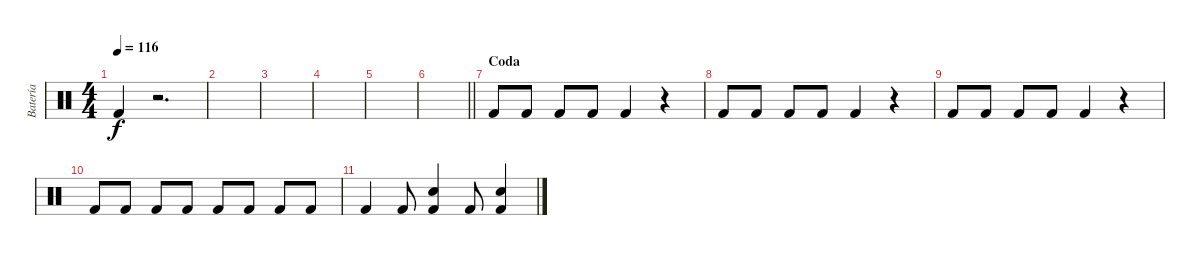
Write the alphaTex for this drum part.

\track ("Batería" "Batería") {instrument percussion}
\staff {score}
\articulation defaults
\ts (4 4)
\tempo 116
\clef neutral
\ks c "Kick (hit) 2".4{dy f}
r.2{d} |
|
|
|
|
\barLineRight lightlight
|
\section ("" "Coda")
"Kick (hit) 2".8 "Kick (hit) 2".8 "Kick (hit) 2".8 "Kick (hit) 2".8 "Kick (hit) 2".4 r.4 |
"Kick (hit) 2".8 "Kick (hit) 2".8 "Kick (hit) 2".8 "Kick (hit) 2".8 "Kick (hit) 2".4 r.4 |
"Kick (hit) 2".8 "Kick (hit) 2".8 "Kick (hit) 2".8 "Kick (hit) 2".8 "Kick (hit) 2".4 r.4 |
"Kick (hit) 2".8 "Kick (hit) 2".8 "Kick (hit) 2".8 "Kick (hit) 2".8 "Kick (hit) 2".8 "Kick (hit) 2".8 "Kick (hit) 2".8 "Kick (hit) 2".8 |
"Kick (hit) 2".4 "Kick (hit) 2".8 ("Electric Snare (hit)" "Kick (hit) 2").4 "Kick (hit) 2".8 ("Electric Snare (hit)" "Kick (hit) 2").4
